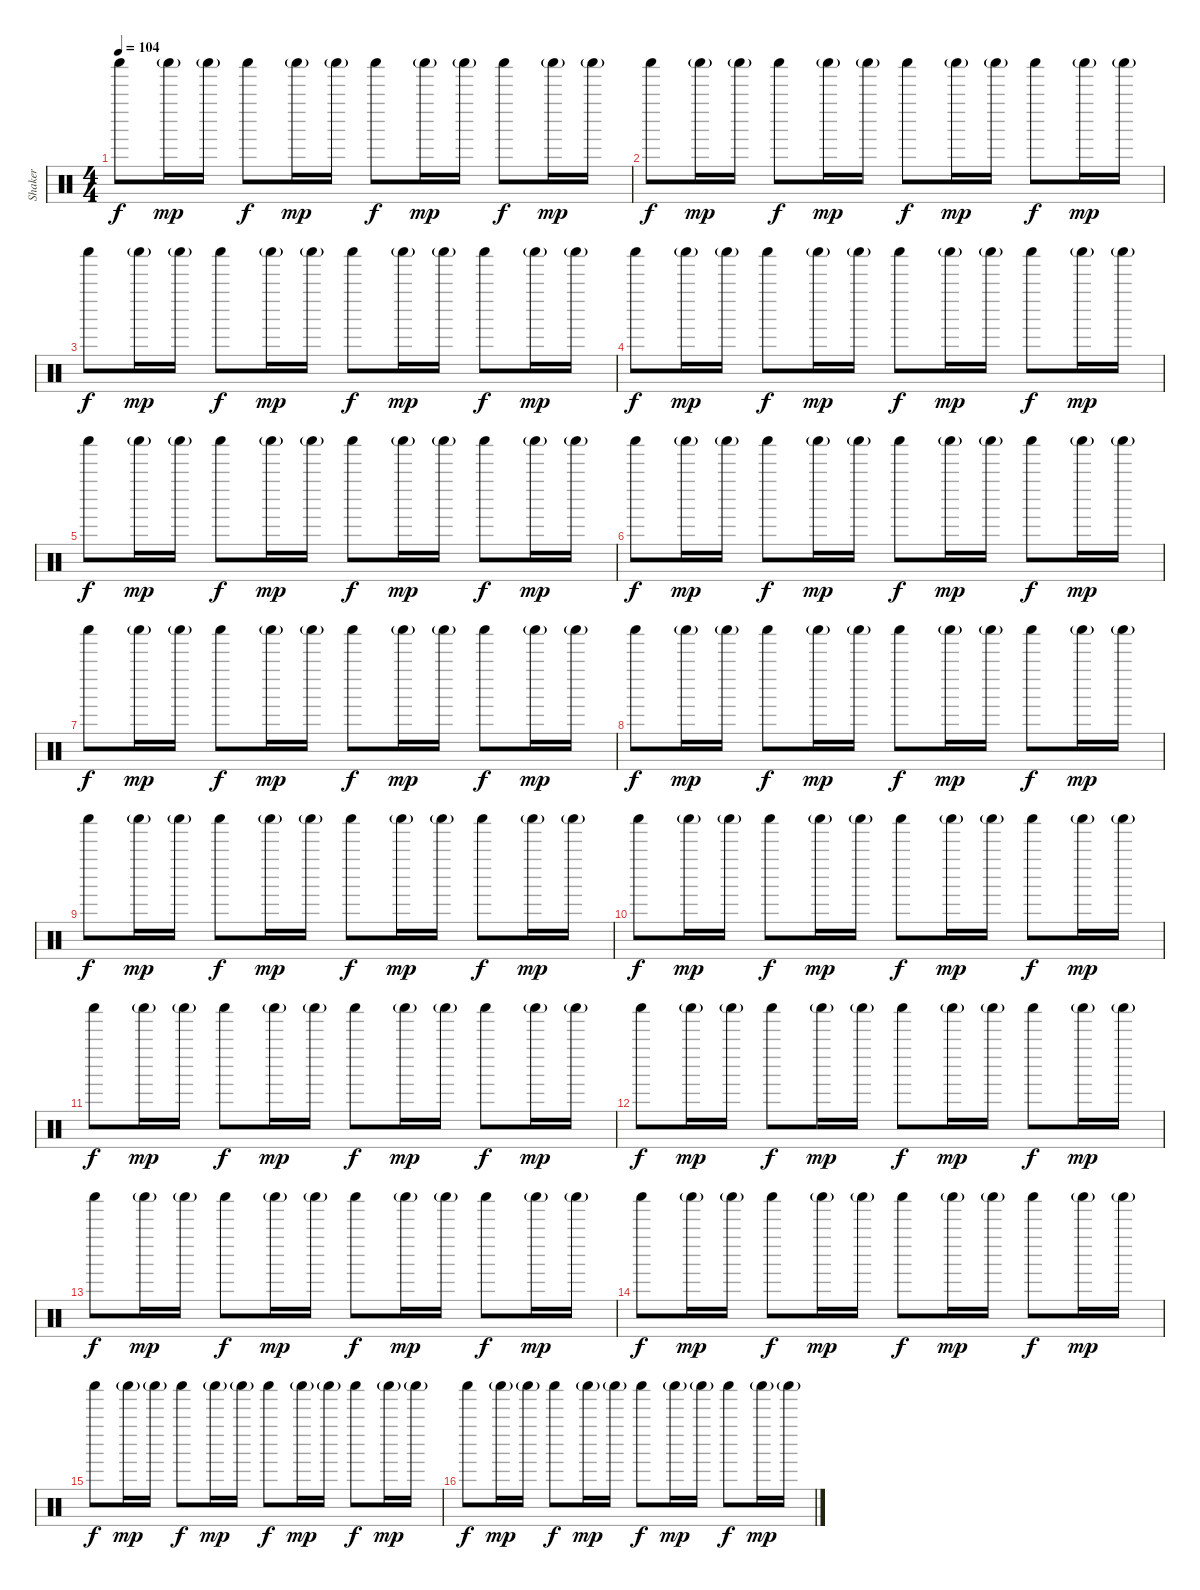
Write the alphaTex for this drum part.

\track ("Shaker" "Shaker") {instrument percussion}
\staff {score}
\articulation defaults
\ts (4 4)
\tempo 104
\clef neutral
\ks c "Shaker (hit)".8{dy f} "Shaker (hit)"{g}.16{dy mp} "Shaker (hit)"{g}.16 "Shaker (hit)".8{dy f} "Shaker (hit)"{g}.16{dy mp} "Shaker (hit)"{g}.16 "Shaker (hit)".8{dy f} "Shaker (hit)"{g}.16{dy mp} "Shaker (hit)"{g}.16 "Shaker (hit)".8{dy f} "Shaker (hit)"{g}.16{dy mp} "Shaker (hit)"{g}.16
|
"Shaker (hit)".8{dy f} "Shaker (hit)"{g}.16{dy mp} "Shaker (hit)"{g}.16 "Shaker (hit)".8{dy f} "Shaker (hit)"{g}.16{dy mp} "Shaker (hit)"{g}.16 "Shaker (hit)".8{dy f} "Shaker (hit)"{g}.16{dy mp} "Shaker (hit)"{g}.16 "Shaker (hit)".8{dy f} "Shaker (hit)"{g}.16{dy mp} "Shaker (hit)"{g}.16 |
"Shaker (hit)".8{dy f} "Shaker (hit)"{g}.16{dy mp} "Shaker (hit)"{g}.16 "Shaker (hit)".8{dy f} "Shaker (hit)"{g}.16{dy mp} "Shaker (hit)"{g}.16 "Shaker (hit)".8{dy f} "Shaker (hit)"{g}.16{dy mp} "Shaker (hit)"{g}.16 "Shaker (hit)".8{dy f} "Shaker (hit)"{g}.16{dy mp} "Shaker (hit)"{g}.16 |
"Shaker (hit)".8{dy f} "Shaker (hit)"{g}.16{dy mp} "Shaker (hit)"{g}.16 "Shaker (hit)".8{dy f} "Shaker (hit)"{g}.16{dy mp} "Shaker (hit)"{g}.16 "Shaker (hit)".8{dy f} "Shaker (hit)"{g}.16{dy mp} "Shaker (hit)"{g}.16 "Shaker (hit)".8{dy f} "Shaker (hit)"{g}.16{dy mp} "Shaker (hit)"{g}.16 |
"Shaker (hit)".8{dy f} "Shaker (hit)"{g}.16{dy mp} "Shaker (hit)"{g}.16 "Shaker (hit)".8{dy f} "Shaker (hit)"{g}.16{dy mp} "Shaker (hit)"{g}.16 "Shaker (hit)".8{dy f} "Shaker (hit)"{g}.16{dy mp} "Shaker (hit)"{g}.16 "Shaker (hit)".8{dy f} "Shaker (hit)"{g}.16{dy mp} "Shaker (hit)"{g}.16 |
"Shaker (hit)".8{dy f} "Shaker (hit)"{g}.16{dy mp} "Shaker (hit)"{g}.16 "Shaker (hit)".8{dy f} "Shaker (hit)"{g}.16{dy mp} "Shaker (hit)"{g}.16 "Shaker (hit)".8{dy f} "Shaker (hit)"{g}.16{dy mp} "Shaker (hit)"{g}.16 "Shaker (hit)".8{dy f} "Shaker (hit)"{g}.16{dy mp} "Shaker (hit)"{g}.16 |
"Shaker (hit)".8{dy f} "Shaker (hit)"{g}.16{dy mp} "Shaker (hit)"{g}.16 "Shaker (hit)".8{dy f} "Shaker (hit)"{g}.16{dy mp} "Shaker (hit)"{g}.16 "Shaker (hit)".8{dy f} "Shaker (hit)"{g}.16{dy mp} "Shaker (hit)"{g}.16 "Shaker (hit)".8{dy f} "Shaker (hit)"{g}.16{dy mp} "Shaker (hit)"{g}.16 |
"Shaker (hit)".8{dy f} "Shaker (hit)"{g}.16{dy mp} "Shaker (hit)"{g}.16 "Shaker (hit)".8{dy f} "Shaker (hit)"{g}.16{dy mp} "Shaker (hit)"{g}.16 "Shaker (hit)".8{dy f} "Shaker (hit)"{g}.16{dy mp} "Shaker (hit)"{g}.16 "Shaker (hit)".8{dy f} "Shaker (hit)"{g}.16{dy mp} "Shaker (hit)"{g}.16 |
"Shaker (hit)".8{dy f} "Shaker (hit)"{g}.16{dy mp} "Shaker (hit)"{g}.16 "Shaker (hit)".8{dy f} "Shaker (hit)"{g}.16{dy mp} "Shaker (hit)"{g}.16 "Shaker (hit)".8{dy f} "Shaker (hit)"{g}.16{dy mp} "Shaker (hit)"{g}.16 "Shaker (hit)".8{dy f} "Shaker (hit)"{g}.16{dy mp} "Shaker (hit)"{g}.16 |
"Shaker (hit)".8{dy f} "Shaker (hit)"{g}.16{dy mp} "Shaker (hit)"{g}.16 "Shaker (hit)".8{dy f} "Shaker (hit)"{g}.16{dy mp} "Shaker (hit)"{g}.16 "Shaker (hit)".8{dy f} "Shaker (hit)"{g}.16{dy mp} "Shaker (hit)"{g}.16 "Shaker (hit)".8{dy f} "Shaker (hit)"{g}.16{dy mp} "Shaker (hit)"{g}.16 |
"Shaker (hit)".8{dy f} "Shaker (hit)"{g}.16{dy mp} "Shaker (hit)"{g}.16 "Shaker (hit)".8{dy f} "Shaker (hit)"{g}.16{dy mp} "Shaker (hit)"{g}.16 "Shaker (hit)".8{dy f} "Shaker (hit)"{g}.16{dy mp} "Shaker (hit)"{g}.16 "Shaker (hit)".8{dy f} "Shaker (hit)"{g}.16{dy mp} "Shaker (hit)"{g}.16 |
"Shaker (hit)".8{dy f} "Shaker (hit)"{g}.16{dy mp} "Shaker (hit)"{g}.16 "Shaker (hit)".8{dy f} "Shaker (hit)"{g}.16{dy mp} "Shaker (hit)"{g}.16 "Shaker (hit)".8{dy f} "Shaker (hit)"{g}.16{dy mp} "Shaker (hit)"{g}.16 "Shaker (hit)".8{dy f} "Shaker (hit)"{g}.16{dy mp} "Shaker (hit)"{g}.16 |
"Shaker (hit)".8{dy f} "Shaker (hit)"{g}.16{dy mp} "Shaker (hit)"{g}.16 "Shaker (hit)".8{dy f} "Shaker (hit)"{g}.16{dy mp} "Shaker (hit)"{g}.16 "Shaker (hit)".8{dy f} "Shaker (hit)"{g}.16{dy mp} "Shaker (hit)"{g}.16 "Shaker (hit)".8{dy f} "Shaker (hit)"{g}.16{dy mp} "Shaker (hit)"{g}.16 |
"Shaker (hit)".8{dy f} "Shaker (hit)"{g}.16{dy mp} "Shaker (hit)"{g}.16 "Shaker (hit)".8{dy f} "Shaker (hit)"{g}.16{dy mp} "Shaker (hit)"{g}.16 "Shaker (hit)".8{dy f} "Shaker (hit)"{g}.16{dy mp} "Shaker (hit)"{g}.16 "Shaker (hit)".8{dy f} "Shaker (hit)"{g}.16{dy mp} "Shaker (hit)"{g}.16 |
"Shaker (hit)".8{dy f} "Shaker (hit)"{g}.16{dy mp} "Shaker (hit)"{g}.16 "Shaker (hit)".8{dy f} "Shaker (hit)"{g}.16{dy mp} "Shaker (hit)"{g}.16 "Shaker (hit)".8{dy f} "Shaker (hit)"{g}.16{dy mp} "Shaker (hit)"{g}.16 "Shaker (hit)".8{dy f} "Shaker (hit)"{g}.16{dy mp} "Shaker (hit)"{g}.16 |
"Shaker (hit)".8{dy f} "Shaker (hit)"{g}.16{dy mp} "Shaker (hit)"{g}.16 "Shaker (hit)".8{dy f} "Shaker (hit)"{g}.16{dy mp} "Shaker (hit)"{g}.16 "Shaker (hit)".8{dy f} "Shaker (hit)"{g}.16{dy mp} "Shaker (hit)"{g}.16 "Shaker (hit)".8{dy f} "Shaker (hit)"{g}.16{dy mp} "Shaker (hit)"{g}.16
